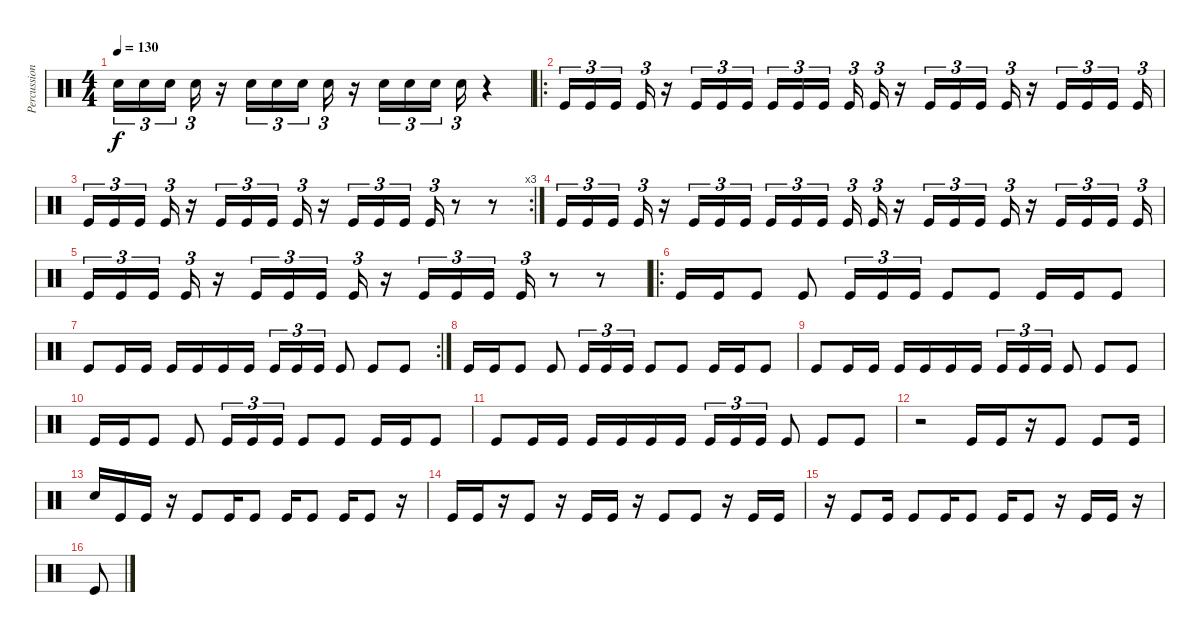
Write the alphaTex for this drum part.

\track ("Percussion" "Percussion") {instrument percussion}
\staff {score}
\articulation defaults
\ts (4 4)
\tempo 130
\clef neutral
\ks c "Electric Snare (hit)".16{tu (3 2) dy f} "Electric Snare (hit)".16{tu (3 2)} "Electric Snare (hit)".16{tu (3 2) beam splitsecondary} "Electric Snare (hit)".16{tu (3 2)}
r.16 "Electric Snare (hit)".16{tu (3 2)} "Electric Snare (hit)".16{tu (3 2)} "Electric Snare (hit)".16{tu (3 2) beam splitsecondary} "Electric Snare (hit)".16{tu (3 2)} r.16 "Electric Snare (hit)".16{tu (3 2)} "Electric Snare (hit)".16{tu (3 2)} "Electric Snare (hit)".16{tu (3 2) beam splitsecondary} "Electric Snare (hit)".16{tu (3 2)} r.4 |
\ro "Kick (hit)".16{tu (3 2)} "Kick (hit)".16{tu (3 2)} "Kick (hit)".16{tu (3 2) beam splitsecondary} "Kick (hit)".16{tu (3 2)}
r.16 "Kick (hit)".16{tu (3 2)} "Kick (hit)".16{tu (3 2)} "Kick (hit)".16{tu (3 2) beam splitsecondary} "Kick (hit)".16{tu (3 2)} "Kick (hit)".16{tu (3 2)} "Kick (hit)".16{tu (3 2) beam splitsecondary} "Kick (hit)".16{tu (3 2)} "Kick (hit)".16{tu (3 2)} r.16 "Kick (hit)".16{tu (3 2)} "Kick (hit)".16{tu (3 2)} "Kick (hit)".16{tu (3 2)} "Kick (hit)".16{tu (3 2)} r.16 "Kick (hit)".16{tu (3 2)} "Kick (hit)".16{tu (3 2)} "Kick (hit)".16{tu (3 2) beam splitsecondary} "Kick (hit)".16{tu (3 2)} |
\rc 3 "Kick (hit)".16{tu (3 2)} "Kick (hit)".16{tu (3 2)} "Kick (hit)".16{tu (3 2) beam splitsecondary} "Kick (hit)".16{tu (3 2)}
r.16 "Kick (hit)".16{tu (3 2)} "Kick (hit)".16{tu (3 2)} "Kick (hit)".16{tu (3 2) beam splitsecondary} "Kick (hit)".16{tu (3 2)} r.16 "Kick (hit)".16{tu (3 2)} "Kick (hit)".16{tu (3 2)} "Kick (hit)".16{tu (3 2) beam splitsecondary} "Kick (hit)".16{tu (3 2)} r.8 r.8 |
"Kick (hit)".16{tu (3 2)} "Kick (hit)".16{tu (3 2)} "Kick (hit)".16{tu (3 2) beam splitsecondary} "Kick (hit)".16{tu (3 2)} r.16 "Kick (hit)".16{tu (3 2)} "Kick (hit)".16{tu (3 2)} "Kick (hit)".16{tu (3 2) beam splitsecondary} "Kick (hit)".16{tu (3 2)} "Kick (hit)".16{tu (3 2)} "Kick (hit)".16{tu (3 2) beam splitsecondary} "Kick (hit)".16{tu (3 2)} "Kick (hit)".16{tu (3 2)} r.16 "Kick (hit)".16{tu (3 2)} "Kick (hit)".16{tu (3 2)} "Kick (hit)".16{tu (3 2)} "Kick (hit)".16{tu (3 2)} r.16 "Kick (hit)".16{tu (3 2)} "Kick (hit)".16{tu (3 2)} "Kick (hit)".16{tu (3 2) beam splitsecondary} "Kick (hit)".16{tu (3 2)} |
"Kick (hit)".16{tu (3 2)} "Kick (hit)".16{tu (3 2)} "Kick (hit)".16{tu (3 2) beam splitsecondary} "Kick (hit)".16{tu (3 2)} r.16 "Kick (hit)".16{tu (3 2)} "Kick (hit)".16{tu (3 2)} "Kick (hit)".16{tu (3 2) beam splitsecondary} "Kick (hit)".16{tu (3 2)} r.16 "Kick (hit)".16{tu (3 2)} "Kick (hit)".16{tu (3 2)} "Kick (hit)".16{tu (3 2) beam splitsecondary} "Kick (hit)".16{tu (3 2)} r.8 r.8 |
\ro "Kick (hit)".16 "Kick (hit)".16 "Kick (hit)".8 "Kick (hit)".8 "Kick (hit)".16{tu (3 2)} "Kick (hit)".16{tu (3 2)} "Kick (hit)".16{tu (3 2)} "Kick (hit)".8 "Kick (hit)".8 "Kick (hit)".16 "Kick (hit)".16 "Kick (hit)".8
|
\rc 2 "Kick (hit)".8 "Kick (hit)".16 "Kick (hit)".16 "Kick (hit)".16 "Kick (hit)".16 "Kick (hit)".16 "Kick (hit)".16 "Kick (hit)".16{tu (3 2)} "Kick (hit)".16{tu (3 2)} "Kick (hit)".16{tu (3 2)} "Kick (hit)".8 "Kick (hit)".8 "Kick (hit)".8
|
"Kick (hit)".16 "Kick (hit)".16 "Kick (hit)".8 "Kick (hit)".8 "Kick (hit)".16{tu (3 2)} "Kick (hit)".16{tu (3 2)} "Kick (hit)".16{tu (3 2)} "Kick (hit)".8 "Kick (hit)".8 "Kick (hit)".16 "Kick (hit)".16 "Kick (hit)".8 |
"Kick (hit)".8 "Kick (hit)".16 "Kick (hit)".16 "Kick (hit)".16 "Kick (hit)".16 "Kick (hit)".16 "Kick (hit)".16 "Kick (hit)".16{tu (3 2)} "Kick (hit)".16{tu (3 2)} "Kick (hit)".16{tu (3 2)} "Kick (hit)".8 "Kick (hit)".8 "Kick (hit)".8 |
"Kick (hit)".16 "Kick (hit)".16 "Kick (hit)".8 "Kick (hit)".8 "Kick (hit)".16{tu (3 2)} "Kick (hit)".16{tu (3 2)} "Kick (hit)".16{tu (3 2)} "Kick (hit)".8 "Kick (hit)".8 "Kick (hit)".16 "Kick (hit)".16 "Kick (hit)".8 |
"Kick (hit)".8 "Kick (hit)".16 "Kick (hit)".16 "Kick (hit)".16 "Kick (hit)".16 "Kick (hit)".16 "Kick (hit)".16 "Kick (hit)".16{tu (3 2)} "Kick (hit)".16{tu (3 2)} "Kick (hit)".16{tu (3 2)} "Kick (hit)".8 "Kick (hit)".8 "Kick (hit)".8 |
r.2 "Kick (hit)".16 "Kick (hit)".16 r.16 "Kick (hit)".8 "Kick (hit)".8 "Kick (hit)".16 |
"Electric Snare (hit)".16 "Kick (hit)".16 "Kick (hit)".16 r.16 "Kick (hit)".8 "Kick (hit)".16 "Kick (hit)".8 "Kick (hit)".16 "Kick (hit)".8 "Kick (hit)".16 "Kick (hit)".8 r.16 |
"Kick (hit)".16 "Kick (hit)".16 r.16 "Kick (hit)".8 r.16 "Kick (hit)".16 "Kick (hit)".16 r.16 "Kick (hit)".8 "Kick (hit)".8 r.16 "Kick (hit)".16 "Kick (hit)".16 |
r.16 "Kick (hit)".8 "Kick (hit)".16 "Kick (hit)".8 "Kick (hit)".16 "Kick (hit)".8 "Kick (hit)".16 "Kick (hit)".8 r.16 "Kick (hit)".16 "Kick (hit)".16 r.16 |
"Kick (hit)".8
